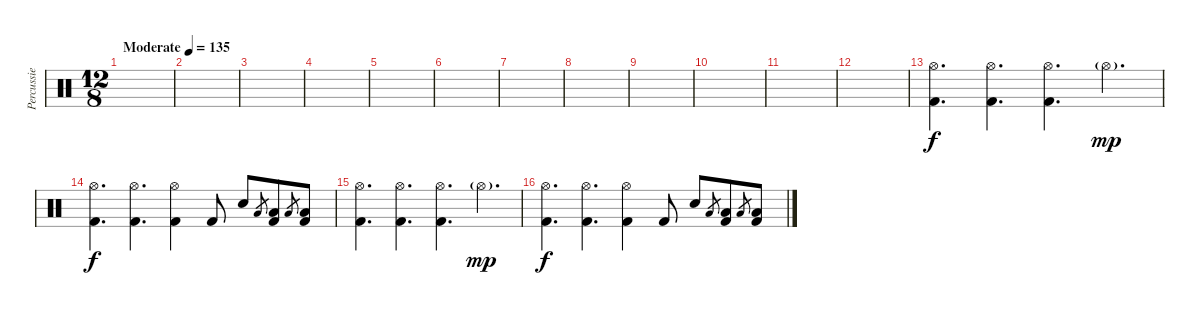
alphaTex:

\track ("Percussie" "Percussie") {instrument percussion}
\staff {score}
\articulation defaults
\ts (12 8)
\tempo (135 "Moderate")
\clef neutral
\ks c
|
|
|
|
|
|
|
|
|
|
|
|
("Hi-Hat (open)" "Kick (hit) 2").4{d} ("Hi-Hat (open)" "Kick (hit) 2").4{d} ("Hi-Hat (open)" "Kick (hit) 2").4{d} "Hi-Hat (open)"{g}.4{d dy mp} |
("Hi-Hat (open)" "Kick (hit) 2").4{d dy f} ("Hi-Hat (open)" "Kick (hit) 2").4{d} ("Hi-Hat (open)" "Kick (hit) 2").4 "Kick (hit) 2".8 "Electric Snare (hit)".8 "Low Tom (hit)".8{gr} ("Low Tom (hit)" "Kick (hit) 2").8 "Low Tom (hit)".8{gr} ("Low Tom (hit)" "Kick (hit) 2").8 |
("Hi-Hat (open)" "Kick (hit) 2").4{d} ("Hi-Hat (open)" "Kick (hit) 2").4{d} ("Hi-Hat (open)" "Kick (hit) 2").4{d} "Hi-Hat (open)"{g}.4{d dy mp} |
("Hi-Hat (open)" "Kick (hit) 2").4{d dy f} ("Hi-Hat (open)" "Kick (hit) 2").4{d} ("Hi-Hat (open)" "Kick (hit) 2").4 "Kick (hit) 2".8 "Electric Snare (hit)".8 "Low Tom (hit)".8{gr} ("Low Tom (hit)" "Kick (hit) 2").8 "Low Tom (hit)".8{gr} ("Low Tom (hit)" "Kick (hit) 2").8
